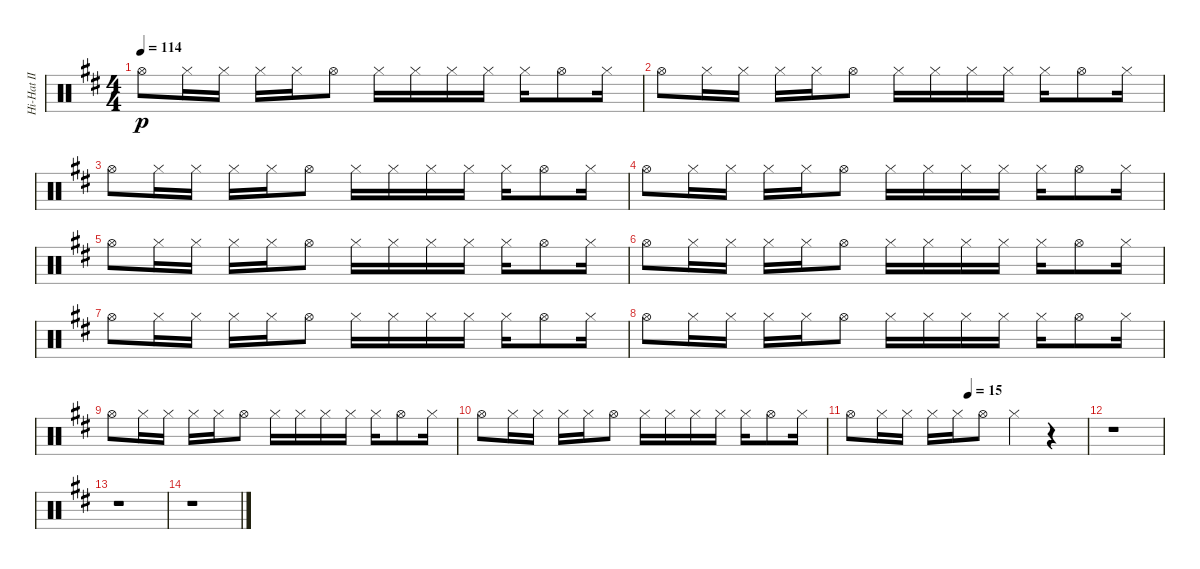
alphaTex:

\track ("Hi-Hat II" "Hi-Hat II") {instrument percussion}
\staff {score}
\articulation defaults
\ts (4 4)
\tempo 114
\clef neutral
\ks d "Hi-Hat (open)".8{dy p} "Hi-Hat (closed)".16 "Hi-Hat (closed)".16 "Hi-Hat (closed)".16 "Hi-Hat (closed)".16 "Hi-Hat (open)".8 "Hi-Hat (closed)".16 "Hi-Hat (closed)".16 "Hi-Hat (closed)".16 "Hi-Hat (closed)".16 "Hi-Hat (closed)".16 "Hi-Hat (open)".8 "Hi-Hat (closed)".16
|
"Hi-Hat (open)".8 "Hi-Hat (closed)".16 "Hi-Hat (closed)".16 "Hi-Hat (closed)".16 "Hi-Hat (closed)".16 "Hi-Hat (open)".8 "Hi-Hat (closed)".16 "Hi-Hat (closed)".16 "Hi-Hat (closed)".16 "Hi-Hat (closed)".16 "Hi-Hat (closed)".16 "Hi-Hat (open)".8 "Hi-Hat (closed)".16 |
"Hi-Hat (open)".8 "Hi-Hat (closed)".16 "Hi-Hat (closed)".16 "Hi-Hat (closed)".16 "Hi-Hat (closed)".16 "Hi-Hat (open)".8 "Hi-Hat (closed)".16 "Hi-Hat (closed)".16 "Hi-Hat (closed)".16 "Hi-Hat (closed)".16 "Hi-Hat (closed)".16 "Hi-Hat (open)".8 "Hi-Hat (closed)".16 |
"Hi-Hat (open)".8 "Hi-Hat (closed)".16 "Hi-Hat (closed)".16 "Hi-Hat (closed)".16 "Hi-Hat (closed)".16 "Hi-Hat (open)".8 "Hi-Hat (closed)".16 "Hi-Hat (closed)".16 "Hi-Hat (closed)".16 "Hi-Hat (closed)".16 "Hi-Hat (closed)".16 "Hi-Hat (open)".8 "Hi-Hat (closed)".16 |
"Hi-Hat (open)".8 "Hi-Hat (closed)".16 "Hi-Hat (closed)".16 "Hi-Hat (closed)".16 "Hi-Hat (closed)".16 "Hi-Hat (open)".8 "Hi-Hat (closed)".16 "Hi-Hat (closed)".16 "Hi-Hat (closed)".16 "Hi-Hat (closed)".16 "Hi-Hat (closed)".16 "Hi-Hat (open)".8 "Hi-Hat (closed)".16 |
"Hi-Hat (open)".8 "Hi-Hat (closed)".16 "Hi-Hat (closed)".16 "Hi-Hat (closed)".16 "Hi-Hat (closed)".16 "Hi-Hat (open)".8 "Hi-Hat (closed)".16 "Hi-Hat (closed)".16 "Hi-Hat (closed)".16 "Hi-Hat (closed)".16 "Hi-Hat (closed)".16 "Hi-Hat (open)".8 "Hi-Hat (closed)".16 |
"Hi-Hat (open)".8 "Hi-Hat (closed)".16 "Hi-Hat (closed)".16 "Hi-Hat (closed)".16 "Hi-Hat (closed)".16 "Hi-Hat (open)".8 "Hi-Hat (closed)".16 "Hi-Hat (closed)".16 "Hi-Hat (closed)".16 "Hi-Hat (closed)".16 "Hi-Hat (closed)".16 "Hi-Hat (open)".8 "Hi-Hat (closed)".16 |
"Hi-Hat (open)".8 "Hi-Hat (closed)".16 "Hi-Hat (closed)".16 "Hi-Hat (closed)".16 "Hi-Hat (closed)".16 "Hi-Hat (open)".8 "Hi-Hat (closed)".16 "Hi-Hat (closed)".16 "Hi-Hat (closed)".16 "Hi-Hat (closed)".16 "Hi-Hat (closed)".16 "Hi-Hat (open)".8 "Hi-Hat (closed)".16 |
"Hi-Hat (open)".8 "Hi-Hat (closed)".16 "Hi-Hat (closed)".16 "Hi-Hat (closed)".16 "Hi-Hat (closed)".16 "Hi-Hat (open)".8 "Hi-Hat (closed)".16 "Hi-Hat (closed)".16 "Hi-Hat (closed)".16 "Hi-Hat (closed)".16 "Hi-Hat (closed)".16 "Hi-Hat (open)".8 "Hi-Hat (closed)".16 |
"Hi-Hat (open)".8 "Hi-Hat (closed)".16 "Hi-Hat (closed)".16 "Hi-Hat (closed)".16 "Hi-Hat (closed)".16 "Hi-Hat (open)".8 "Hi-Hat (closed)".16 "Hi-Hat (closed)".16 "Hi-Hat (closed)".16 "Hi-Hat (closed)".16 "Hi-Hat (closed)".16 "Hi-Hat (open)".8 "Hi-Hat (closed)".16 |
\tempo (15 0.5)
"Hi-Hat (open)".8 "Hi-Hat (closed)".16 "Hi-Hat (closed)".16 "Hi-Hat (closed)".16 "Hi-Hat (closed)".16 "Hi-Hat (open)".8 "Hi-Hat (closed)".4 r.4 |
r.1 |
r.1 |
r.1
